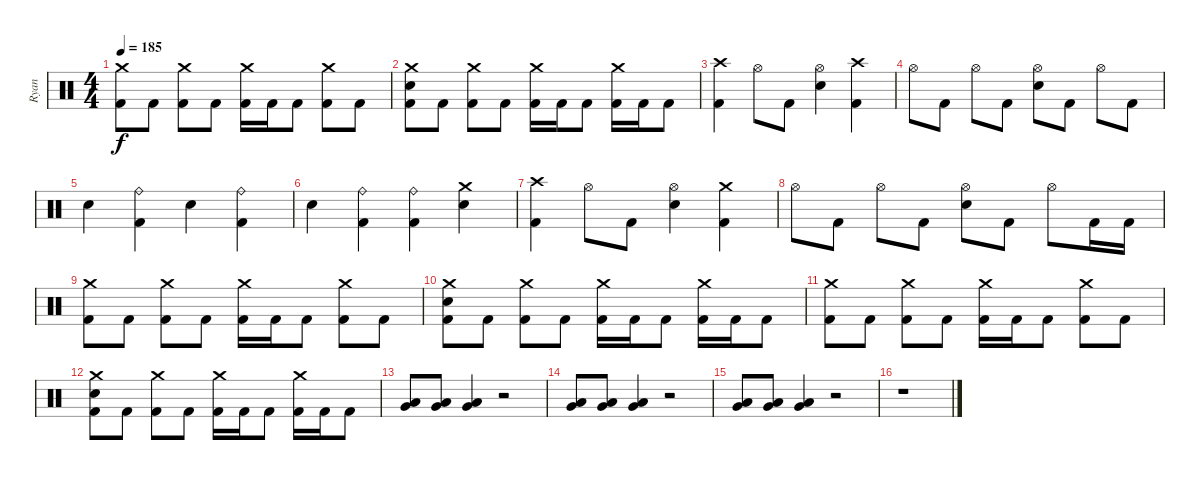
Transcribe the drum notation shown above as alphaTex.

\track ("Ryan" "Ryan") {instrument percussion}
\staff {score}
\articulation defaults
\ts (4 4)
\tempo 185
\clef neutral
\ks c
("Crash medium (hit)" "Kick (hit) 2").8{dy f} "Kick (hit) 2".8 ("Crash medium (hit)" "Kick (hit) 2").8 "Kick (hit) 2".8 ("Crash medium (hit)" "Kick (hit) 2").16 "Kick (hit) 2".16 "Kick (hit) 2".8 ("Crash medium (hit)" "Kick (hit) 2").8 "Kick (hit) 2".8 |
("Crash medium (hit)" "Electric Snare (hit)" "Kick (hit) 2").8 "Kick (hit) 2".8 ("Crash medium (hit)" "Kick (hit) 2").8 "Kick (hit) 2".8 ("Crash medium (hit)" "Kick (hit) 2").16 "Kick (hit) 2".16 "Kick (hit) 2".8 ("Crash medium (hit)" "Kick (hit) 2").16 "Kick (hit) 2".16 "Kick (hit) 2".8 |
("Crash high (hit)" "Kick (hit) 2").4 "Hi-Hat (open)".8 "Kick (hit) 2".8 ("Hi-Hat (open)" "Electric Snare (hit)").4 ("Crash high (hit)" "Kick (hit) 2").4 |
"Hi-Hat (open)".8 "Kick (hit) 2".8 "Hi-Hat (open)".8 "Kick (hit) 2".8 ("Hi-Hat (open)" "Electric Snare (hit)").8 "Kick (hit) 2".8 "Hi-Hat (open)".8 "Kick (hit) 2".8 |
"Electric Snare (hit)".4 ("Ride (bell)" "Kick (hit) 2").4 "Electric Snare (hit)".4 ("Ride (bell)" "Kick (hit) 2").4 |
"Electric Snare (hit)".4 ("Ride (bell)" "Kick (hit) 2").4 ("Ride (bell)" "Kick (hit) 2").4 ("Crash medium (hit)" "Electric Snare (hit)").4 |
("Crash high (hit)" "Kick (hit) 2").4 "Hi-Hat (open)".8 "Kick (hit) 2".8 ("Hi-Hat (open)" "Electric Snare (hit)").4 ("Crash medium (hit)" "Kick (hit) 2").4 |
"Hi-Hat (open)".8 "Kick (hit) 2".8 "Hi-Hat (open)".8 "Kick (hit) 2".8 ("Hi-Hat (open)" "Electric Snare (hit)").8 "Kick (hit) 2".8 "Hi-Hat (open)".8 "Kick (hit) 2".16 "Kick (hit) 2".16 |
("Crash medium (hit)" "Kick (hit) 2").8 "Kick (hit) 2".8 ("Crash medium (hit)" "Kick (hit) 2").8 "Kick (hit) 2".8 ("Crash medium (hit)" "Kick (hit) 2").16 "Kick (hit) 2".16 "Kick (hit) 2".8 ("Crash medium (hit)" "Kick (hit) 2").8 "Kick (hit) 2".8 |
("Crash medium (hit)" "Electric Snare (hit)" "Kick (hit) 2").8 "Kick (hit) 2".8 ("Crash medium (hit)" "Kick (hit) 2").8 "Kick (hit) 2".8 ("Crash medium (hit)" "Kick (hit) 2").16 "Kick (hit) 2".16 "Kick (hit) 2".8 ("Crash medium (hit)" "Kick (hit) 2").16 "Kick (hit) 2".16 "Kick (hit) 2".8 |
("Crash medium (hit)" "Kick (hit) 2").8 "Kick (hit) 2".8 ("Crash medium (hit)" "Kick (hit) 2").8 "Kick (hit) 2".8 ("Crash medium (hit)" "Kick (hit) 2").16 "Kick (hit) 2".16 "Kick (hit) 2".8 ("Crash medium (hit)" "Kick (hit) 2").8 "Kick (hit) 2".8 |
("Crash medium (hit)" "Electric Snare (hit)" "Kick (hit) 2").8 "Kick (hit) 2".8 ("Crash medium (hit)" "Kick (hit) 2").8 "Kick (hit) 2".8 ("Crash medium (hit)" "Kick (hit) 2").16 "Kick (hit) 2".16 "Kick (hit) 2".8 ("Crash medium (hit)" "Kick (hit) 2").16 "Kick (hit) 2".16 "Kick (hit) 2".8 |
("Low Tom (hit)" "Very Low Tom (hit)").8 ("Low Tom (hit)" "Very Low Tom (hit)").8 ("Low Tom (hit)" "Very Low Tom (hit)").4 r.2 |
("Low Tom (hit)" "Very Low Tom (hit)").8 ("Low Tom (hit)" "Very Low Tom (hit)").8 ("Low Tom (hit)" "Very Low Tom (hit)").4 r.2 |
("Low Tom (hit)" "Very Low Tom (hit)").8 ("Low Tom (hit)" "Very Low Tom (hit)").8 ("Low Tom (hit)" "Very Low Tom (hit)").4 r.2 |
r.1
